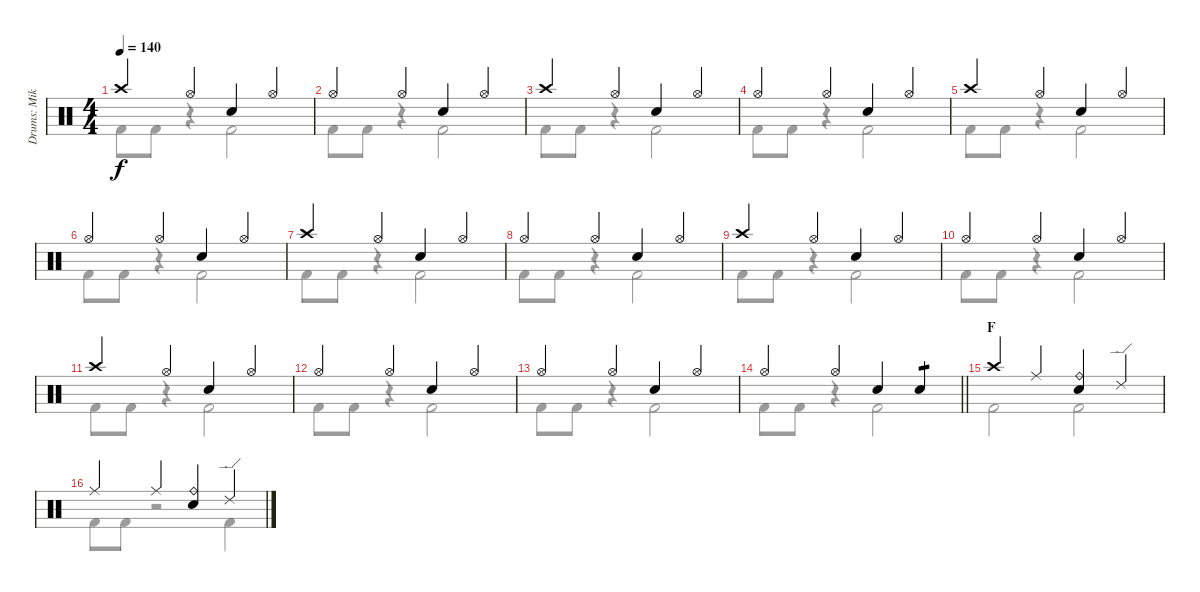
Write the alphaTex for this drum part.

\track ("Drums: Mike" "Drums: Mik") {instrument percussion}
\staff {score}
\articulation defaults
\voice
\ts (4 4)
\tempo 140
\clef neutral
\ks c "Crash high (hit)".4{dy f} "Hi-Hat (open)".4 "Snare (hit) 2".4 "Hi-Hat (open)".4
|
"Hi-Hat (open)".4 "Hi-Hat (open)".4 "Snare (hit) 2".4 "Hi-Hat (open)".4 |
"Crash high (hit)".4 "Hi-Hat (open)".4 "Snare (hit) 2".4 "Hi-Hat (open)".4 |
"Hi-Hat (open)".4 "Hi-Hat (open)".4 "Snare (hit) 2".4 "Hi-Hat (open)".4 |
"Crash high (hit)".4 "Hi-Hat (open)".4 "Snare (hit) 2".4 "Hi-Hat (open)".4 |
"Hi-Hat (open)".4 "Hi-Hat (open)".4 "Snare (hit) 2".4 "Hi-Hat (open)".4 |
"Crash high (hit)".4 "Hi-Hat (open)".4 "Snare (hit) 2".4 "Hi-Hat (open)".4 |
"Hi-Hat (open)".4 "Hi-Hat (open)".4 "Snare (hit) 2".4 "Hi-Hat (open)".4 |
"Crash high (hit)".4 "Hi-Hat (open)".4 "Snare (hit) 2".4 "Hi-Hat (open)".4 |
"Hi-Hat (open)".4 "Hi-Hat (open)".4 "Snare (hit) 2".4 "Hi-Hat (open)".4 |
"Crash high (hit)".4 "Hi-Hat (open)".4 "Snare (hit) 2".4 "Hi-Hat (open)".4 |
"Hi-Hat (open)".4 "Hi-Hat (open)".4 "Snare (hit) 2".4 "Hi-Hat (open)".4 |
"Hi-Hat (open)".4 "Hi-Hat (open)".4 "Snare (hit) 2".4 "Hi-Hat (open)".4 |
\barLineRight lightlight "Hi-Hat (open)".4 "Hi-Hat (open)".4 "Snare (hit) 2".4 "Snare (hit) 2".4{tp 1}
|
\section ("" "F")
"Crash high (hit)".4 "Ride (middle)".4 ("Ride (bell)" "Snare (hit) 2").4 "Ride (edge) 2".4 |
"Ride (middle)".4 "Ride (middle)".4 ("Ride (bell)" "Snare (hit) 2").4 "Ride (edge) 2".4
\voice
\clef neutral
\ottava regular
\simile none
\ks c "Kick (hit) 2".8{dy f} "Kick (hit) 2".8
r.4 "Kick (hit) 2".2 |
"Kick (hit) 2".8 "Kick (hit) 2".8 r.4 "Kick (hit) 2".2 |
"Kick (hit) 2".8 "Kick (hit) 2".8 r.4 "Kick (hit) 2".2 |
"Kick (hit) 2".8 "Kick (hit) 2".8 r.4 "Kick (hit) 2".2 |
"Kick (hit) 2".8 "Kick (hit) 2".8 r.4 "Kick (hit) 2".2 |
"Kick (hit) 2".8 "Kick (hit) 2".8 r.4 "Kick (hit) 2".2 |
"Kick (hit) 2".8 "Kick (hit) 2".8 r.4 "Kick (hit) 2".2 |
"Kick (hit) 2".8 "Kick (hit) 2".8 r.4 "Kick (hit) 2".2 |
"Kick (hit) 2".8 "Kick (hit) 2".8 r.4 "Kick (hit) 2".2 |
"Kick (hit) 2".8 "Kick (hit) 2".8 r.4 "Kick (hit) 2".2 |
"Kick (hit) 2".8 "Kick (hit) 2".8 r.4 "Kick (hit) 2".2 |
"Kick (hit) 2".8 "Kick (hit) 2".8 r.4 "Kick (hit) 2".2 |
"Kick (hit) 2".8 "Kick (hit) 2".8 r.4 "Kick (hit) 2".2 |
\barLineRight lightlight "Kick (hit) 2".8 "Kick (hit) 2".8
r.4 "Kick (hit) 2".2 |
"Kick (hit) 2".2 "Kick (hit) 2".2 |
"Kick (hit) 2".8 "Kick (hit) 2".8 r.2 "Kick (hit) 2".4
